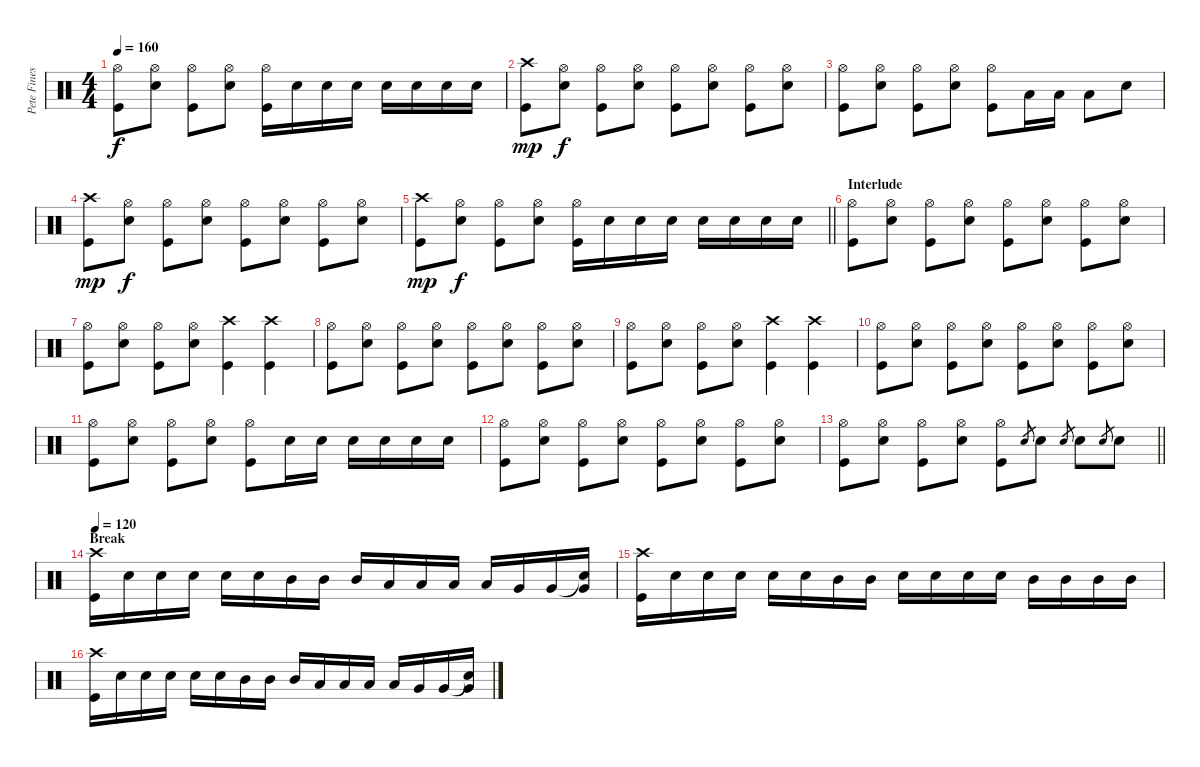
\track ("Pete Finestone (Drums)" "Pete Fines") {instrument percussion}
\staff {score}
\articulation defaults
\ts (4 4)
\tempo 160
\clef neutral
\ks c
("Hi-Hat (open)" "Kick (hit)").8{dy f} ("Hi-Hat (open)" "Snare (hit) 2").8 ("Hi-Hat (open)" "Kick (hit)").8 ("Hi-Hat (open)" "Snare (hit) 2").8 ("Hi-Hat (open)" "Kick (hit)").16 "Snare (hit) 2".16 "Snare (hit) 2".16 "Snare (hit) 2".16 "Snare (hit) 2".16 "Snare (hit) 2".16 "Snare (hit) 2".16 "Snare (hit) 2".16 |
("Crash high (hit)" "Kick (hit)").8{dy mp} ("Hi-Hat (open)" "Snare (hit) 2").8{dy f} ("Hi-Hat (open)" "Kick (hit)").8 ("Hi-Hat (open)" "Snare (hit) 2").8 ("Hi-Hat (open)" "Kick (hit)").8 ("Hi-Hat (open)" "Snare (hit) 2").8 ("Hi-Hat (open)" "Kick (hit)").8 ("Hi-Hat (open)" "Snare (hit) 2").8 |
("Hi-Hat (open)" "Kick (hit)").8 ("Hi-Hat (open)" "Snare (hit) 2").8 ("Hi-Hat (open)" "Kick (hit)").8 ("Hi-Hat (open)" "Snare (hit) 2").8 ("Hi-Hat (open)" "Kick (hit)").8 "Low Tom (hit)".16 "Low Tom (hit)".16 "Low Tom (hit)".8 "Snare (hit) 2".8 |
("Crash high (hit)" "Kick (hit)").8{dy mp} ("Hi-Hat (open)" "Snare (hit) 2").8{dy f} ("Hi-Hat (open)" "Kick (hit)").8 ("Hi-Hat (open)" "Snare (hit) 2").8 ("Hi-Hat (open)" "Kick (hit)").8 ("Hi-Hat (open)" "Snare (hit) 2").8 ("Hi-Hat (open)" "Kick (hit)").8 ("Hi-Hat (open)" "Snare (hit) 2").8 |
\barLineRight lightlight
("Crash high (hit)" "Kick (hit)").8{dy mp} ("Hi-Hat (open)" "Snare (hit) 2").8{dy f} ("Hi-Hat (open)" "Kick (hit)").8 ("Hi-Hat (open)" "Snare (hit) 2").8 ("Hi-Hat (open)" "Kick (hit)").16 "Snare (hit) 2".16 "Snare (hit) 2".16 "Snare (hit) 2".16 "Snare (hit) 2".16 "Snare (hit) 2".16 "Snare (hit) 2".16 "Snare (hit) 2".16 |
\section ("" "Interlude")
("Hi-Hat (open)" "Kick (hit)").8 ("Hi-Hat (open)" "Snare (hit) 2").8 ("Hi-Hat (open)" "Kick (hit)").8 ("Hi-Hat (open)" "Snare (hit) 2").8 ("Hi-Hat (open)" "Kick (hit)").8 ("Hi-Hat (open)" "Snare (hit) 2").8 ("Hi-Hat (open)" "Kick (hit)").8 ("Hi-Hat (open)" "Snare (hit) 2").8 |
("Hi-Hat (open)" "Kick (hit)").8 ("Hi-Hat (open)" "Snare (hit) 2").8 ("Hi-Hat (open)" "Kick (hit)").8 ("Hi-Hat (open)" "Snare (hit) 2").8 ("Crash high (hit)" "Kick (hit)").4 ("Crash high (hit)" "Kick (hit)").4 |
("Hi-Hat (open)" "Kick (hit)").8 ("Hi-Hat (open)" "Snare (hit) 2").8 ("Hi-Hat (open)" "Kick (hit)").8 ("Hi-Hat (open)" "Snare (hit) 2").8 ("Hi-Hat (open)" "Kick (hit)").8 ("Hi-Hat (open)" "Snare (hit) 2").8 ("Hi-Hat (open)" "Kick (hit)").8 ("Hi-Hat (open)" "Snare (hit) 2").8 |
("Hi-Hat (open)" "Kick (hit)").8 ("Hi-Hat (open)" "Snare (hit) 2").8 ("Hi-Hat (open)" "Kick (hit)").8 ("Hi-Hat (open)" "Snare (hit) 2").8 ("Crash high (hit)" "Kick (hit)").4 ("Crash high (hit)" "Kick (hit)").4 |
("Hi-Hat (open)" "Kick (hit)").8 ("Hi-Hat (open)" "Snare (hit) 2").8 ("Hi-Hat (open)" "Kick (hit)").8 ("Hi-Hat (open)" "Snare (hit) 2").8 ("Hi-Hat (open)" "Kick (hit)").8 ("Hi-Hat (open)" "Snare (hit) 2").8 ("Hi-Hat (open)" "Kick (hit)").8 ("Hi-Hat (open)" "Snare (hit) 2").8 |
("Hi-Hat (open)" "Kick (hit)").8 ("Hi-Hat (open)" "Snare (hit) 2").8 ("Hi-Hat (open)" "Kick (hit)").8 ("Hi-Hat (open)" "Snare (hit) 2").8 ("Hi-Hat (open)" "Kick (hit)").8 "Snare (hit) 2".16 "Snare (hit) 2".16 "Snare (hit) 2".16 "Snare (hit) 2".16 "Snare (hit) 2".16 "Snare (hit) 2".16 |
("Hi-Hat (open)" "Kick (hit)").8 ("Hi-Hat (open)" "Snare (hit) 2").8 ("Hi-Hat (open)" "Kick (hit)").8 ("Hi-Hat (open)" "Snare (hit) 2").8 ("Hi-Hat (open)" "Kick (hit)").8 ("Hi-Hat (open)" "Snare (hit) 2").8 ("Hi-Hat (open)" "Kick (hit)").8 ("Hi-Hat (open)" "Snare (hit) 2").8 |
\barLineRight lightlight
("Hi-Hat (open)" "Kick (hit)").8 ("Hi-Hat (open)" "Snare (hit) 2").8 ("Hi-Hat (open)" "Kick (hit)").8 ("Hi-Hat (open)" "Snare (hit) 2").8 ("Hi-Hat (open)" "Kick (hit)").8 "Snare (hit) 2".8{gr} "Snare (hit) 2".8 "Snare (hit) 2".8{gr} "Snare (hit) 2".8 "Snare (hit) 2".8{gr} "Snare (hit) 2".8 |
\section ("" "Break")
\tempo 120
("Crash high (hit)" "Kick (hit)").16 "Snare (hit) 2".16 "Snare (hit) 2".16 "Snare (hit) 2".16 "Snare (hit) 2".16 "Snare (hit) 2".16 "Mid Tom (hit)".16 "Mid Tom (hit)".16 "Mid Tom (hit)".16 "Low Tom (hit)".16 "Low Tom (hit)".16 "Low Tom (hit)".16 "Low Tom (hit)".16 "Very Low Tom (hit)".16 "Very Low Tom (hit)".16 ("Snare (hit)"{t} "Very Low Tom (hit)").16 |
("Crash high (hit)" "Kick (hit)").16 "Snare (hit) 2".16 "Snare (hit) 2".16 "Snare (hit) 2".16 "Snare (hit) 2".16 "Snare (hit) 2".16 "Mid Tom (hit)".16 "Mid Tom (hit)".16 "Snare (hit) 2".16 "Snare (hit) 2".16 "Snare (hit) 2".16 "Snare (hit) 2".16 "Mid Tom (hit)".16 "Mid Tom (hit)".16 "Mid Tom (hit)".16 "Mid Tom (hit)".16 |
("Crash high (hit)" "Kick (hit)").16 "Snare (hit) 2".16 "Snare (hit) 2".16 "Snare (hit) 2".16 "Snare (hit) 2".16 "Snare (hit) 2".16 "Mid Tom (hit)".16 "Mid Tom (hit)".16 "Mid Tom (hit)".16 "Low Tom (hit)".16 "Low Tom (hit)".16 "Low Tom (hit)".16 "Low Tom (hit)".16 "Very Low Tom (hit)".16 "Very Low Tom (hit)".16 ("Snare (hit)"{t} "Very Low Tom (hit)").16
